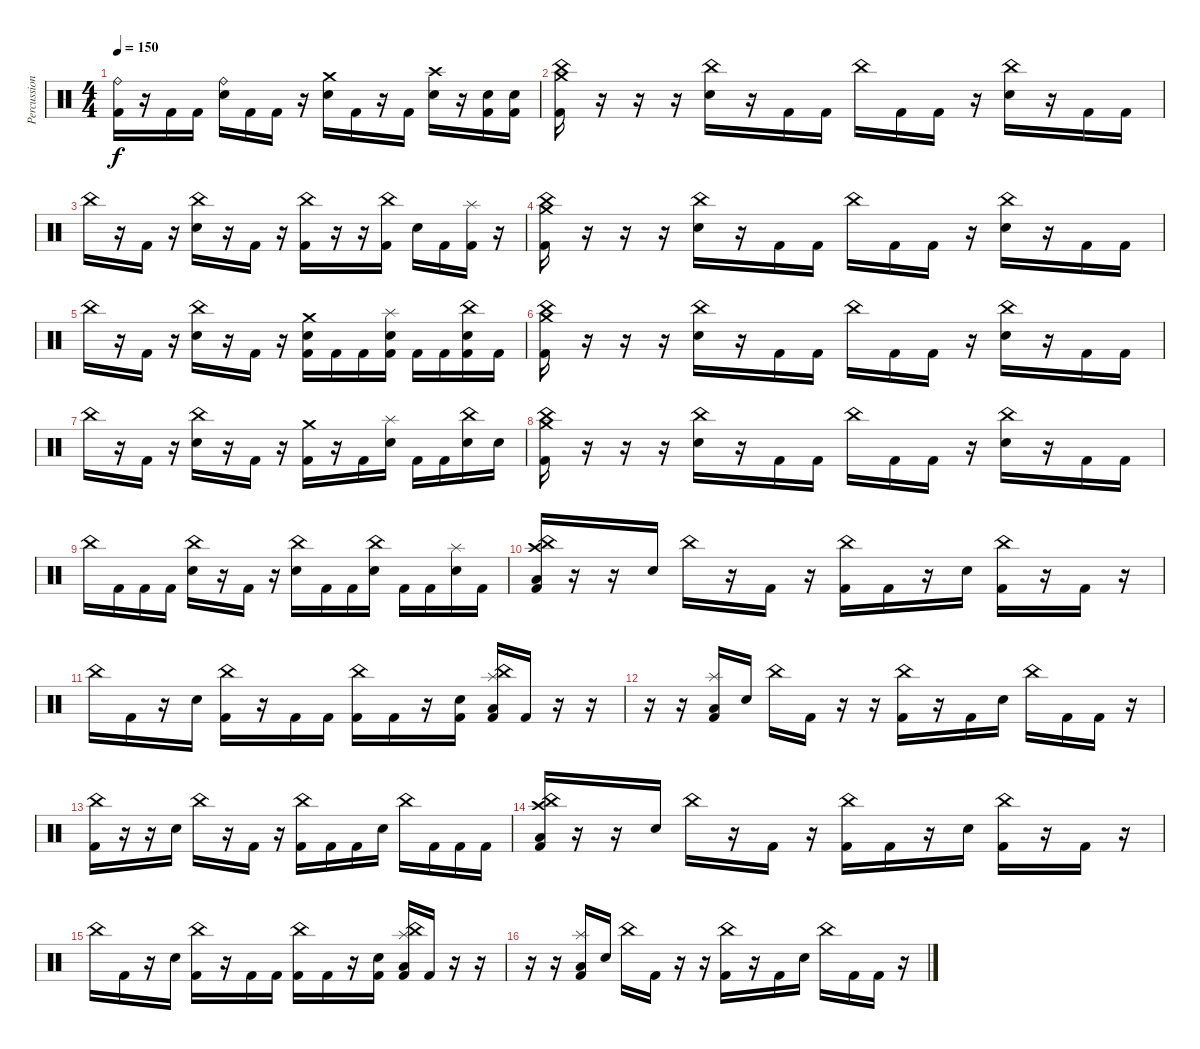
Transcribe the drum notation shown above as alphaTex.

\track ("Percussion" "Percussion") {instrument percussion}
\staff {score}
\articulation defaults
\ts (4 4)
\tempo 150
\clef neutral
\ks c
("Ride (bell)" "Kick (hit) 2").16{dy f} r.16 "Kick (hit) 2".16 "Kick (hit) 2".16 ("Ride (bell)" "Electric Snare (hit)").16 "Kick (hit) 2".16 "Kick (hit) 2".16 r.16 ("Crash medium (hit)" "Electric Snare (hit)").16 "Kick (hit) 2".16 r.16 "Kick (hit) 2".16 ("Crash high (hit)" "Electric Snare (hit)").16 r.16 ("Electric Snare (hit)" "Kick (hit) 2").16 ("Electric Snare (hit)" "Kick (hit) 2").16 |
("China (hit)" "Crash medium (hit)" "Kick (hit) 2").16 r.16 r.16 r.16 ("China (hit)" "Electric Snare (hit)").16 r.16 "Kick (hit) 2".16 "Kick (hit) 2".16 "China (hit)".16 "Kick (hit) 2".16 "Kick (hit) 2".16 r.16 ("China (hit)" "Electric Snare (hit)").16 r.16 "Kick (hit) 2".16 "Kick (hit) 2".16 |
"China (hit)".16 r.16 "Kick (hit) 2".16 r.16 ("China (hit)" "Electric Snare (hit)").16 r.16 "Kick (hit) 2".16 r.16 ("China (hit)" "Kick (hit) 2").16 r.16 r.16 ("China (hit)" "Kick (hit) 2").16 "Electric Snare (hit)".16 "Kick (hit) 2".16 ("Splash (hit)" "Kick (hit) 2").16 r.16 |
("China (hit)" "Crash medium (hit)" "Kick (hit) 2").16 r.16 r.16 r.16 ("China (hit)" "Electric Snare (hit)").16 r.16 "Kick (hit) 2".16 "Kick (hit) 2".16 "China (hit)".16 "Kick (hit) 2".16 "Kick (hit) 2".16 r.16 ("China (hit)" "Electric Snare (hit)").16 r.16 "Kick (hit) 2".16 "Kick (hit) 2".16 |
"China (hit)".16 r.16 "Kick (hit) 2".16 r.16 ("China (hit)" "Electric Snare (hit)").16 r.16 "Kick (hit) 2".16 r.16 ("Crash medium (hit)" "Electric Snare (hit)" "Kick (hit) 2").16 "Kick (hit) 2".16 "Kick (hit) 2".16 ("Splash (hit)" "Electric Snare (hit)" "Kick (hit) 2").16 "Kick (hit) 2".16 "Kick (hit) 2".16 ("China (hit)" "Electric Snare (hit)" "Kick (hit) 2").16 "Kick (hit) 2".16 |
("China (hit)" "Crash medium (hit)" "Kick (hit) 2").16 r.16 r.16 r.16 ("China (hit)" "Electric Snare (hit)").16 r.16 "Kick (hit) 2".16 "Kick (hit) 2".16 "China (hit)".16 "Kick (hit) 2".16 "Kick (hit) 2".16 r.16 ("China (hit)" "Electric Snare (hit)").16 r.16 "Kick (hit) 2".16 "Kick (hit) 2".16 |
"China (hit)".16 r.16 "Kick (hit) 2".16 r.16 ("China (hit)" "Electric Snare (hit)").16 r.16 "Kick (hit) 2".16 r.16 ("Crash medium (hit)" "Kick (hit) 2").16 r.16 "Kick (hit) 2".16 ("Splash (hit)" "Electric Snare (hit)").16 "Kick (hit) 2".16 "Kick (hit) 2".16 ("China (hit)" "Electric Snare (hit)").16 "Electric Snare (hit)".16 |
("China (hit)" "Crash medium (hit)" "Kick (hit) 2").16 r.16 r.16 r.16 ("China (hit)" "Electric Snare (hit)").16 r.16 "Kick (hit) 2".16 "Kick (hit) 2".16 "China (hit)".16 "Kick (hit) 2".16 "Kick (hit) 2".16 r.16 ("China (hit)" "Electric Snare (hit)").16 r.16 "Kick (hit) 2".16 "Kick (hit) 2".16 |
"China (hit)".16 "Kick (hit) 2".16 "Kick (hit) 2".16 "Kick (hit) 2".16 ("China (hit)" "Electric Snare (hit)").16 r.16 "Kick (hit) 2".16 r.16 ("China (hit)" "Electric Snare (hit)").16 "Kick (hit) 2".16 "Kick (hit) 2".16 ("China (hit)" "Electric Snare (hit)").16 "Kick (hit) 2".16 "Kick (hit) 2".16 ("Splash (hit)" "Electric Snare (hit)").16 "Kick (hit) 2".16 |
("China (hit)" "Crash high (hit)" "Low Floor Tom (hit)" "Kick (hit) 2").16 r.16 r.16 "Electric Snare (hit)".16 "China (hit)".16 r.16 "Kick (hit) 2".16 r.16 ("China (hit)" "Kick (hit) 2").16 "Kick (hit) 2".16 r.16 "Electric Snare (hit)".16 ("China (hit)" "Kick (hit) 2").16 r.16 "Kick (hit) 2".16 r.16 |
"China (hit)".16 "Kick (hit) 2".16 r.16 "Electric Snare (hit)".16 ("China (hit)" "Kick (hit) 2").16 r.16 "Kick (hit) 2".16 "Kick (hit) 2".16 ("China (hit)" "Kick (hit) 2").16 "Kick (hit) 2".16 r.16 ("Electric Snare (hit)" "Kick (hit) 2").16 ("China (hit)" "Splash (hit)" "Low Floor Tom (hit)" "Kick (hit) 2").16 "Kick (hit) 2".16 r.16 r.16 |
r.16 r.16 ("Splash (hit)" "Low Floor Tom (hit)" "Kick (hit) 2").16 "Electric Snare (hit)".16 "China (hit)".16 "Kick (hit) 2".16 r.16 r.16 ("China (hit)" "Kick (hit) 2").16 r.16 "Kick (hit) 2".16 "Electric Snare (hit)".16 "China (hit)".16 "Kick (hit) 2".16 "Kick (hit) 2".16 r.16 |
("China (hit)" "Kick (hit) 2").16 r.16 r.16 "Electric Snare (hit)".16 "China (hit)".16 r.16 "Kick (hit) 2".16 r.16 ("China (hit)" "Kick (hit) 2").16 "Kick (hit) 2".16 "Kick (hit) 2".16 "Electric Snare (hit)".16 "China (hit)".16 "Kick (hit) 2".16 "Kick (hit) 2".16 "Kick (hit) 2".16 |
("China (hit)" "Crash high (hit)" "Low Floor Tom (hit)" "Kick (hit) 2").16 r.16 r.16 "Electric Snare (hit)".16 "China (hit)".16 r.16 "Kick (hit) 2".16 r.16 ("China (hit)" "Kick (hit) 2").16 "Kick (hit) 2".16 r.16 "Electric Snare (hit)".16 ("China (hit)" "Kick (hit) 2").16 r.16 "Kick (hit) 2".16 r.16 |
"China (hit)".16 "Kick (hit) 2".16 r.16 "Electric Snare (hit)".16 ("China (hit)" "Kick (hit) 2").16 r.16 "Kick (hit) 2".16 "Kick (hit) 2".16 ("China (hit)" "Kick (hit) 2").16 "Kick (hit) 2".16 r.16 ("Electric Snare (hit)" "Kick (hit) 2").16 ("China (hit)" "Splash (hit)" "Low Floor Tom (hit)" "Kick (hit) 2").16 "Kick (hit) 2".16 r.16 r.16 |
r.16 r.16 ("Splash (hit)" "Low Floor Tom (hit)" "Kick (hit) 2").16 "Electric Snare (hit)".16 "China (hit)".16 "Kick (hit) 2".16 r.16 r.16 ("China (hit)" "Kick (hit) 2").16 r.16 "Kick (hit) 2".16 "Electric Snare (hit)".16 "China (hit)".16 "Kick (hit) 2".16 "Kick (hit) 2".16 r.16
